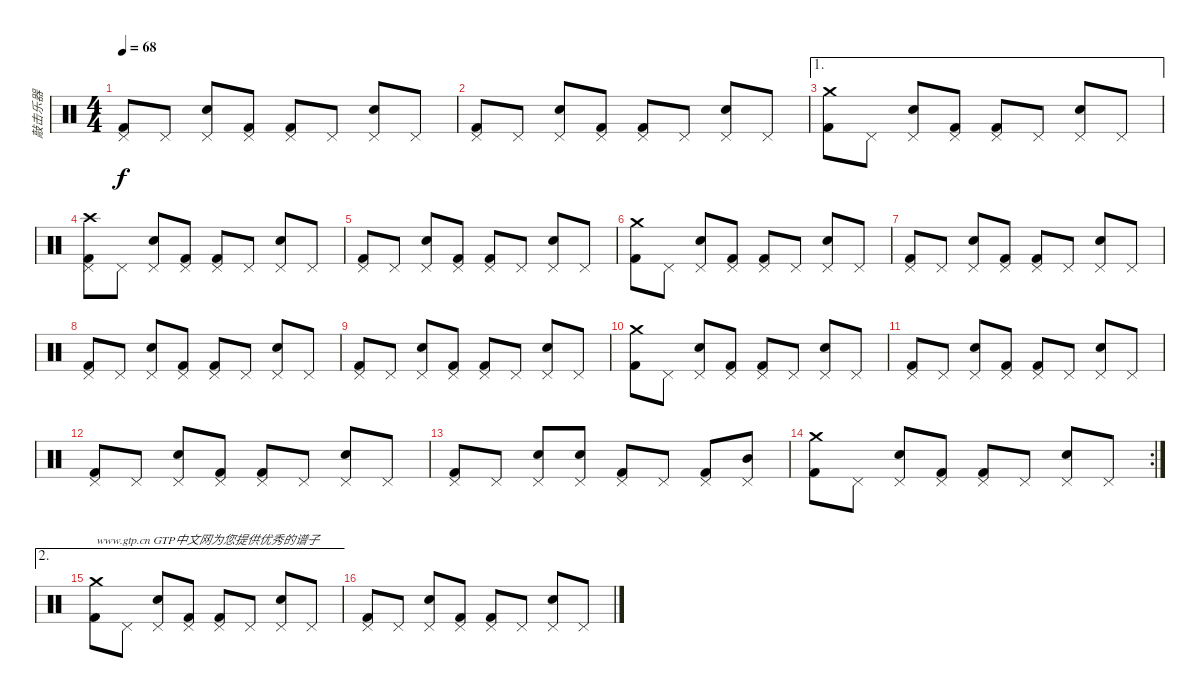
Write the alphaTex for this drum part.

\track ("敲击乐器" "敲击乐器") {instrument percussion}
\staff {score}
\articulation defaults
\ts (4 4)
\tempo 68
\clef neutral
\ks c
("Pedal Hi-Hat (hit)" "Kick (hit) 2").8{dy f} "Pedal Hi-Hat (hit)".8 ("Pedal Hi-Hat (hit)" "Snare (hit) 2").8 ("Pedal Hi-Hat (hit)" "Kick (hit) 2").8 ("Pedal Hi-Hat (hit)" "Kick (hit) 2").8 "Pedal Hi-Hat (hit)".8 ("Pedal Hi-Hat (hit)" "Snare (hit) 2").8 "Pedal Hi-Hat (hit)".8 |
("Pedal Hi-Hat (hit)" "Kick (hit) 2").8 "Pedal Hi-Hat (hit)".8 ("Pedal Hi-Hat (hit)" "Snare (hit) 2").8 ("Pedal Hi-Hat (hit)" "Kick (hit) 2").8 ("Pedal Hi-Hat (hit)" "Kick (hit) 2").8 "Pedal Hi-Hat (hit)".8 ("Pedal Hi-Hat (hit)" "Snare (hit) 2").8 "Pedal Hi-Hat (hit)".8 |
\ae 1
("Crash medium (hit)" "Kick (hit) 2").8 "Pedal Hi-Hat (hit)".8 ("Pedal Hi-Hat (hit)" "Snare (hit) 2").8 ("Pedal Hi-Hat (hit)" "Kick (hit) 2").8 ("Pedal Hi-Hat (hit)" "Kick (hit) 2").8 "Pedal Hi-Hat (hit)".8 ("Pedal Hi-Hat (hit)" "Snare (hit) 2").8 "Pedal Hi-Hat (hit)".8 |
("Crash high (hit)" "Pedal Hi-Hat (hit)" "Kick (hit) 2").8 "Pedal Hi-Hat (hit)".8 ("Pedal Hi-Hat (hit)" "Snare (hit) 2").8 ("Pedal Hi-Hat (hit)" "Kick (hit) 2").8 ("Pedal Hi-Hat (hit)" "Kick (hit) 2").8 "Pedal Hi-Hat (hit)".8 ("Pedal Hi-Hat (hit)" "Snare (hit) 2").8 "Pedal Hi-Hat (hit)".8 |
("Pedal Hi-Hat (hit)" "Kick (hit) 2").8 "Pedal Hi-Hat (hit)".8 ("Pedal Hi-Hat (hit)" "Snare (hit) 2").8 ("Pedal Hi-Hat (hit)" "Kick (hit) 2").8 ("Pedal Hi-Hat (hit)" "Kick (hit) 2").8 "Pedal Hi-Hat (hit)".8 ("Pedal Hi-Hat (hit)" "Snare (hit) 2").8 "Pedal Hi-Hat (hit)".8 |
("Crash medium (hit)" "Kick (hit) 2").8 "Pedal Hi-Hat (hit)".8 ("Pedal Hi-Hat (hit)" "Snare (hit) 2").8 ("Pedal Hi-Hat (hit)" "Kick (hit) 2").8 ("Pedal Hi-Hat (hit)" "Kick (hit) 2").8 "Pedal Hi-Hat (hit)".8 ("Pedal Hi-Hat (hit)" "Snare (hit) 2").8 "Pedal Hi-Hat (hit)".8 |
("Pedal Hi-Hat (hit)" "Kick (hit) 2").8 "Pedal Hi-Hat (hit)".8 ("Pedal Hi-Hat (hit)" "Snare (hit) 2").8 ("Pedal Hi-Hat (hit)" "Kick (hit) 2").8 ("Pedal Hi-Hat (hit)" "Kick (hit) 2").8 "Pedal Hi-Hat (hit)".8 ("Pedal Hi-Hat (hit)" "Snare (hit) 2").8 "Pedal Hi-Hat (hit)".8 |
("Pedal Hi-Hat (hit)" "Kick (hit) 2").8 "Pedal Hi-Hat (hit)".8 ("Pedal Hi-Hat (hit)" "Snare (hit) 2").8 ("Pedal Hi-Hat (hit)" "Kick (hit) 2").8 ("Pedal Hi-Hat (hit)" "Kick (hit) 2").8 "Pedal Hi-Hat (hit)".8 ("Pedal Hi-Hat (hit)" "Snare (hit) 2").8 "Pedal Hi-Hat (hit)".8 |
("Pedal Hi-Hat (hit)" "Kick (hit) 2").8 "Pedal Hi-Hat (hit)".8 ("Pedal Hi-Hat (hit)" "Snare (hit) 2").8 ("Pedal Hi-Hat (hit)" "Kick (hit) 2").8 ("Pedal Hi-Hat (hit)" "Kick (hit) 2").8 "Pedal Hi-Hat (hit)".8 ("Pedal Hi-Hat (hit)" "Snare (hit) 2").8 "Pedal Hi-Hat (hit)".8 |
("Crash medium (hit)" "Kick (hit) 2").8 "Pedal Hi-Hat (hit)".8 ("Pedal Hi-Hat (hit)" "Snare (hit) 2").8 ("Pedal Hi-Hat (hit)" "Kick (hit) 2").8 ("Pedal Hi-Hat (hit)" "Kick (hit) 2").8 "Pedal Hi-Hat (hit)".8 ("Pedal Hi-Hat (hit)" "Snare (hit) 2").8 "Pedal Hi-Hat (hit)".8 |
("Pedal Hi-Hat (hit)" "Kick (hit) 2").8 "Pedal Hi-Hat (hit)".8 ("Pedal Hi-Hat (hit)" "Snare (hit) 2").8 ("Pedal Hi-Hat (hit)" "Kick (hit) 2").8 ("Pedal Hi-Hat (hit)" "Kick (hit) 2").8 "Pedal Hi-Hat (hit)".8 ("Pedal Hi-Hat (hit)" "Snare (hit) 2").8 "Pedal Hi-Hat (hit)".8 |
("Pedal Hi-Hat (hit)" "Kick (hit) 2").8 "Pedal Hi-Hat (hit)".8 ("Pedal Hi-Hat (hit)" "Snare (hit) 2").8 ("Pedal Hi-Hat (hit)" "Kick (hit) 2").8 ("Pedal Hi-Hat (hit)" "Kick (hit) 2").8 "Pedal Hi-Hat (hit)".8 ("Pedal Hi-Hat (hit)" "Snare (hit) 2").8 "Pedal Hi-Hat (hit)".8 |
("Pedal Hi-Hat (hit)" "Kick (hit) 2").8 "Pedal Hi-Hat (hit)".8 ("Pedal Hi-Hat (hit)" "Snare (hit) 2").8 ("Pedal Hi-Hat (hit)" "Snare (hit) 2").8 ("Pedal Hi-Hat (hit)" "Kick (hit) 2").8 "Pedal Hi-Hat (hit)".8 ("Pedal Hi-Hat (hit)" "Kick (hit) 2").8 ("Pedal Hi-Hat (hit)" "Mid Tom (hit)").8 |
\rc 2
("Crash medium (hit)" "Kick (hit) 2").8 "Pedal Hi-Hat (hit)".8 ("Pedal Hi-Hat (hit)" "Snare (hit) 2").8 ("Pedal Hi-Hat (hit)" "Kick (hit) 2").8 ("Pedal Hi-Hat (hit)" "Kick (hit) 2").8 "Pedal Hi-Hat (hit)".8 ("Pedal Hi-Hat (hit)" "Snare (hit) 2").8 "Pedal Hi-Hat (hit)".8 |
\ae 2
("Crash medium (hit)" "Kick (hit) 2").8{txt "www.gtp.cn GTP中文网为您提供优秀的谱子"} "Pedal Hi-Hat (hit)".8 ("Pedal Hi-Hat (hit)" "Snare (hit) 2").8 ("Pedal Hi-Hat (hit)" "Kick (hit) 2").8 ("Pedal Hi-Hat (hit)" "Kick (hit) 2").8 "Pedal Hi-Hat (hit)".8 ("Pedal Hi-Hat (hit)" "Snare (hit) 2").8 "Pedal Hi-Hat (hit)".8 |
("Pedal Hi-Hat (hit)" "Kick (hit) 2").8 "Pedal Hi-Hat (hit)".8 ("Pedal Hi-Hat (hit)" "Snare (hit) 2").8 ("Pedal Hi-Hat (hit)" "Kick (hit) 2").8 ("Pedal Hi-Hat (hit)" "Kick (hit) 2").8 "Pedal Hi-Hat (hit)".8 ("Pedal Hi-Hat (hit)" "Snare (hit) 2").8 "Pedal Hi-Hat (hit)".8
